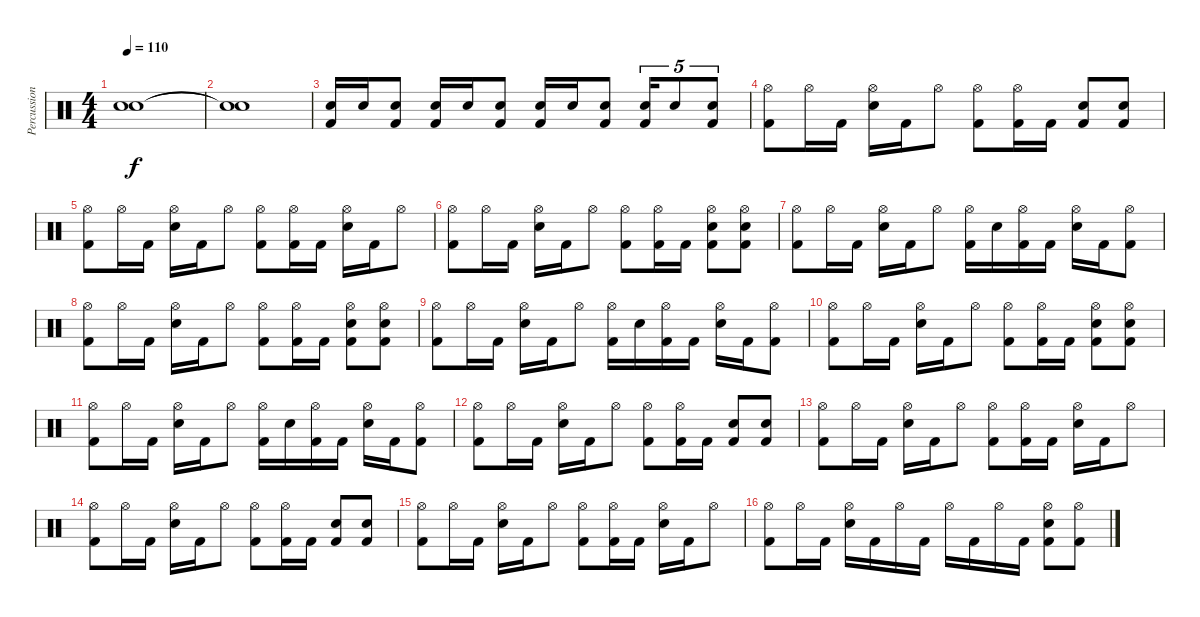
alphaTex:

\track ("Percussions" "Percussion") {instrument percussion}
\staff {score}
\articulation defaults
\ts (4 4)
\tempo 110
\clef neutral
\ks c
("Snare (hit)"{t} "Snare (hit)"{t}).1{dy f} |
("Snare (hit)"{t} "Snare (hit)"{t}).1 |
("Electric Snare (hit)" "Kick (hit) 2").16 "Electric Snare (hit)".16 ("Electric Snare (hit)" "Kick (hit) 2").8 ("Electric Snare (hit)" "Kick (hit) 2").16 "Electric Snare (hit)".16 ("Electric Snare (hit)" "Kick (hit) 2").8 ("Electric Snare (hit)" "Kick (hit) 2").16 "Electric Snare (hit)".16 ("Electric Snare (hit)" "Kick (hit) 2").8 ("Electric Snare (hit)" "Kick (hit) 2").16{tu (5 4)} "Electric Snare (hit)".8{tu (5 4)} ("Electric Snare (hit)" "Kick (hit) 2").8{tu (5 4)} |
("Hi-Hat (open)" "Kick (hit) 2").8 "Hi-Hat (open)".16 "Kick (hit) 2".16 ("Electric Snare (hit)" "Hi-Hat (open)").16 "Kick (hit) 2".16 "Hi-Hat (open)".8 ("Hi-Hat (open)" "Kick (hit) 2").8 ("Hi-Hat (open)" "Kick (hit) 2").16 "Kick (hit) 2".16 ("Electric Snare (hit)" "Kick (hit) 2").8 ("Electric Snare (hit)" "Kick (hit) 2").8 |
("Hi-Hat (open)" "Kick (hit) 2").8 "Hi-Hat (open)".16 "Kick (hit) 2".16 ("Electric Snare (hit)" "Hi-Hat (open)").16 "Kick (hit) 2".16 "Hi-Hat (open)".8 ("Hi-Hat (open)" "Kick (hit) 2").8 ("Hi-Hat (open)" "Kick (hit) 2").16 "Kick (hit) 2".16 ("Electric Snare (hit)" "Hi-Hat (open)").16 "Kick (hit) 2".16 "Hi-Hat (open)".8 |
("Hi-Hat (open)" "Kick (hit) 2").8 "Hi-Hat (open)".16 "Kick (hit) 2".16 ("Electric Snare (hit)" "Hi-Hat (open)").16 "Kick (hit) 2".16 "Hi-Hat (open)".8 ("Hi-Hat (open)" "Kick (hit) 2").8 ("Hi-Hat (open)" "Kick (hit) 2").16 "Kick (hit) 2".16 ("Electric Snare (hit)" "Hi-Hat (open)" "Kick (hit) 2").8 ("Electric Snare (hit)" "Hi-Hat (open)" "Kick (hit) 2").8 |
("Hi-Hat (open)" "Kick (hit) 2").8 "Hi-Hat (open)".16 "Kick (hit) 2".16 ("Electric Snare (hit)" "Hi-Hat (open)").16 "Kick (hit) 2".16 "Hi-Hat (open)".8 ("Hi-Hat (open)" "Kick (hit) 2").16 "Electric Snare (hit)".16 ("Hi-Hat (open)" "Kick (hit) 2").16 "Kick (hit) 2".16 ("Electric Snare (hit)" "Hi-Hat (open)").16 "Kick (hit) 2".16 ("Hi-Hat (open)" "Kick (hit) 2").8 |
("Hi-Hat (open)" "Kick (hit) 2").8 "Hi-Hat (open)".16 "Kick (hit) 2".16 ("Electric Snare (hit)" "Hi-Hat (open)").16 "Kick (hit) 2".16 "Hi-Hat (open)".8 ("Hi-Hat (open)" "Kick (hit) 2").8 ("Hi-Hat (open)" "Kick (hit) 2").16 "Kick (hit) 2".16 ("Electric Snare (hit)" "Hi-Hat (open)" "Kick (hit) 2").8 ("Electric Snare (hit)" "Hi-Hat (open)" "Kick (hit) 2").8 |
("Hi-Hat (open)" "Kick (hit) 2").8 "Hi-Hat (open)".16 "Kick (hit) 2".16 ("Electric Snare (hit)" "Hi-Hat (open)").16 "Kick (hit) 2".16 "Hi-Hat (open)".8 ("Hi-Hat (open)" "Kick (hit) 2").16 "Electric Snare (hit)".16 ("Hi-Hat (open)" "Kick (hit) 2").16 "Kick (hit) 2".16 ("Electric Snare (hit)" "Hi-Hat (open)").16 "Kick (hit) 2".16 ("Hi-Hat (open)" "Kick (hit) 2").8 |
("Hi-Hat (open)" "Kick (hit) 2").8 "Hi-Hat (open)".16 "Kick (hit) 2".16 ("Electric Snare (hit)" "Hi-Hat (open)").16 "Kick (hit) 2".16 "Hi-Hat (open)".8 ("Hi-Hat (open)" "Kick (hit) 2").8 ("Hi-Hat (open)" "Kick (hit) 2").16 "Kick (hit) 2".16 ("Electric Snare (hit)" "Hi-Hat (open)" "Kick (hit) 2").8 ("Electric Snare (hit)" "Hi-Hat (open)" "Kick (hit) 2").8 |
("Hi-Hat (open)" "Kick (hit) 2").8 "Hi-Hat (open)".16 "Kick (hit) 2".16 ("Electric Snare (hit)" "Hi-Hat (open)").16 "Kick (hit) 2".16 "Hi-Hat (open)".8 ("Hi-Hat (open)" "Kick (hit) 2").16 "Electric Snare (hit)".16 ("Hi-Hat (open)" "Kick (hit) 2").16 "Kick (hit) 2".16 ("Electric Snare (hit)" "Hi-Hat (open)").16 "Kick (hit) 2".16 ("Hi-Hat (open)" "Kick (hit) 2").8 |
("Hi-Hat (open)" "Kick (hit) 2").8 "Hi-Hat (open)".16 "Kick (hit) 2".16 ("Electric Snare (hit)" "Hi-Hat (open)").16 "Kick (hit) 2".16 "Hi-Hat (open)".8 ("Hi-Hat (open)" "Kick (hit) 2").8 ("Hi-Hat (open)" "Kick (hit) 2").16 "Kick (hit) 2".16 ("Electric Snare (hit)" "Kick (hit) 2").8 ("Electric Snare (hit)" "Kick (hit) 2").8 |
("Hi-Hat (open)" "Kick (hit) 2").8 "Hi-Hat (open)".16 "Kick (hit) 2".16 ("Electric Snare (hit)" "Hi-Hat (open)").16 "Kick (hit) 2".16 "Hi-Hat (open)".8 ("Hi-Hat (open)" "Kick (hit) 2").8 ("Hi-Hat (open)" "Kick (hit) 2").16 "Kick (hit) 2".16 ("Electric Snare (hit)" "Hi-Hat (open)").16 "Kick (hit) 2".16 "Hi-Hat (open)".8 |
("Hi-Hat (open)" "Kick (hit) 2").8 "Hi-Hat (open)".16 "Kick (hit) 2".16 ("Electric Snare (hit)" "Hi-Hat (open)").16 "Kick (hit) 2".16 "Hi-Hat (open)".8 ("Hi-Hat (open)" "Kick (hit) 2").8 ("Hi-Hat (open)" "Kick (hit) 2").16 "Kick (hit) 2".16 ("Electric Snare (hit)" "Kick (hit) 2").8 ("Electric Snare (hit)" "Kick (hit) 2").8 |
("Hi-Hat (open)" "Kick (hit) 2").8 "Hi-Hat (open)".16 "Kick (hit) 2".16 ("Electric Snare (hit)" "Hi-Hat (open)").16 "Kick (hit) 2".16 "Hi-Hat (open)".8 ("Hi-Hat (open)" "Kick (hit) 2").8 ("Hi-Hat (open)" "Kick (hit) 2").16 "Kick (hit) 2".16 ("Electric Snare (hit)" "Hi-Hat (open)").16 "Kick (hit) 2".16 "Hi-Hat (open)".8 |
("Hi-Hat (open)" "Kick (hit) 2").8 "Hi-Hat (open)".16 "Kick (hit) 2".16 ("Electric Snare (hit)" "Hi-Hat (open)").16 "Kick (hit) 2".16 "Hi-Hat (open)".16 "Kick (hit) 2".16 "Hi-Hat (open)".16 "Kick (hit) 2".16 "Hi-Hat (open)".16 "Kick (hit) 2".16 ("Electric Snare (hit)" "Hi-Hat (open)" "Kick (hit) 2").8 ("Hi-Hat (open)" "Kick (hit) 2").8
